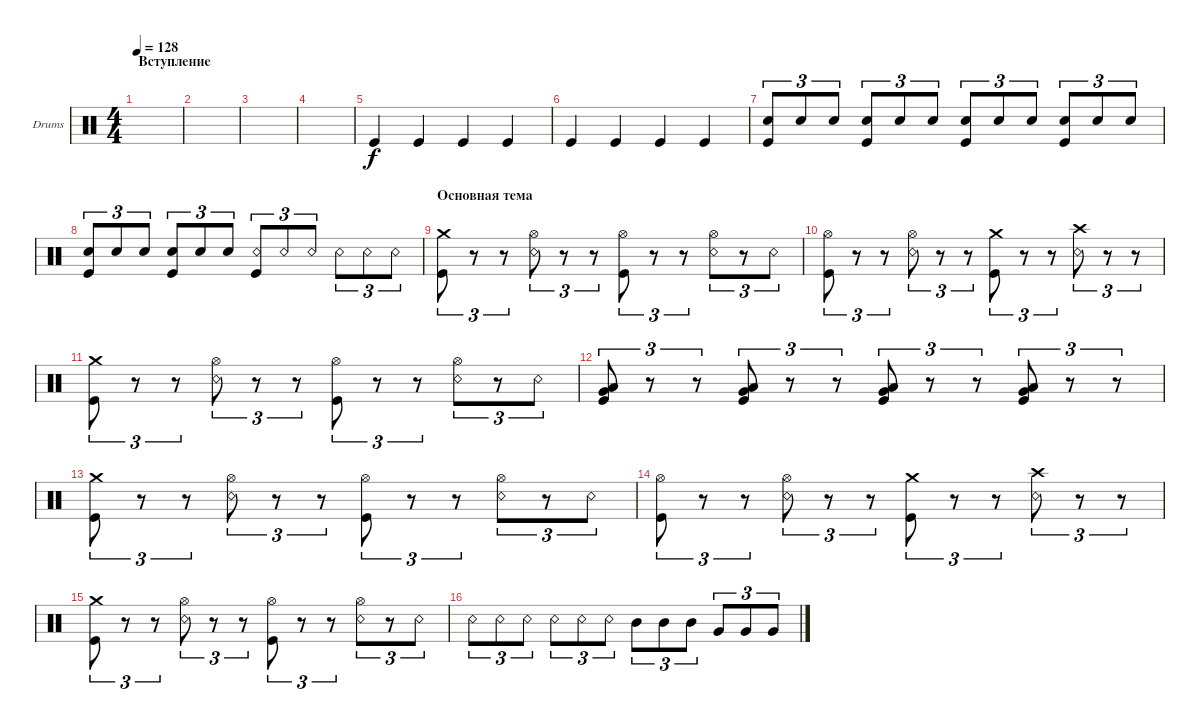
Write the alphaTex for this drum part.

\defaultSystemsLayout 4
\bracketExtendMode groupsimilarinstruments
\firstSystemTrackNameOrientation horizontal
\otherSystemsTrackNameOrientation horizontal
\track ("Drumkit" "Drums") {instrument percussion}
\staff {score}
\articulation defaults
\ts (4 4)
\section ("" "Вступление")
\tempo 128
\clef neutral
\ks c
|
|
|
|
"Kick (hit)".4 "Kick (hit)".4 "Kick (hit)".4 "Kick (hit)".4 |
"Kick (hit)".4 "Kick (hit)".4 "Kick (hit)".4 "Kick (hit)".4 |
("Snare (hit) 2" "Kick (hit)").8{tu (3 2)} "Snare (hit) 2".8{tu (3 2)} "Snare (hit) 2".8{tu (3 2)} ("Snare (hit) 2" "Kick (hit)").8{tu (3 2)} "Snare (hit) 2".8{tu (3 2)} "Snare (hit) 2".8{tu (3 2)} ("Snare (hit) 2" "Kick (hit)").8{tu (3 2)} "Snare (hit) 2".8{tu (3 2)} "Snare (hit) 2".8{tu (3 2)} ("Snare (hit) 2" "Kick (hit)").8{tu (3 2)} "Snare (hit) 2".8{tu (3 2)} "Snare (hit) 2".8{tu (3 2)} |
("Snare (hit) 2" "Kick (hit)").8{tu (3 2)} "Snare (hit) 2".8{tu (3 2)} "Snare (hit) 2".8{tu (3 2)} ("Snare (hit) 2" "Kick (hit)").8{tu (3 2)} "Snare (hit) 2".8{tu (3 2)} "Snare (hit) 2".8{tu (3 2)} ("Snare (rim shot)" "Kick (hit)").8{tu (3 2)} "Snare (rim shot)".8{tu (3 2)} "Snare (rim shot)".8{tu (3 2)} "Snare (rim shot)".8{tu (3 2)} "Snare (rim shot)".8{tu (3 2)} "Snare (rim shot)".8{tu (3 2)} |
\section ("" "Основная тема")
("Kick (hit)" "Crash medium (hit)").8{tu (3 2)} r.8{tu (3 2)} r.8{tu (3 2)} ("Snare (rim shot)" "Hi-Hat (open)").8{tu (3 2)} r.8{tu (3 2)} r.8{tu (3 2)} ("Kick (hit)" "Hi-Hat (open)").8{tu (3 2)} r.8{tu (3 2)} r.8{tu (3 2)} ("Snare (rim shot)" "Hi-Hat (open)").8{tu (3 2)} r.8{tu (3 2)} "Snare (rim shot)".8{tu (3 2)} |
("Kick (hit)" "Hi-Hat (open)").8{tu (3 2)} r.8{tu (3 2)} r.8{tu (3 2)} ("Snare (rim shot)" "Hi-Hat (open)").8{tu (3 2)} r.8{tu (3 2)} r.8{tu (3 2)} ("Kick (hit)" "Crash medium (hit)").8{tu (3 2)} r.8{tu (3 2)} r.8{tu (3 2)} ("Snare (rim shot)" "Crash high (hit)").8{tu (3 2)} r.8{tu (3 2)} r.8{tu (3 2)} |
("Kick (hit)" "Crash medium (hit)").8{tu (3 2)} r.8{tu (3 2)} r.8{tu (3 2)} ("Snare (rim shot)" "Hi-Hat (open)").8{tu (3 2)} r.8{tu (3 2)} r.8{tu (3 2)} ("Kick (hit)" "Hi-Hat (open)").8{tu (3 2)} r.8{tu (3 2)} r.8{tu (3 2)} ("Snare (rim shot)" "Hi-Hat (open)").8{tu (3 2)} r.8{tu (3 2)} "Snare (rim shot)".8{tu (3 2)} |
("Low Tom (hit)" "Very Low Tom (hit)" "Kick (hit)").8{tu (3 2)} r.8{tu (3 2)} r.8{tu (3 2)} ("Low Tom (hit)" "Very Low Tom (hit)" "Kick (hit)").8{tu (3 2)} r.8{tu (3 2)} r.8{tu (3 2)} ("Low Tom (hit)" "Very Low Tom (hit)" "Kick (hit)").8{tu (3 2)} r.8{tu (3 2)} r.8{tu (3 2)} ("Low Tom (hit)" "Very Low Tom (hit)" "Kick (hit)").8{tu (3 2)} r.8{tu (3 2)} r.8{tu (3 2)} |
("Kick (hit)" "Crash medium (hit)").8{tu (3 2)} r.8{tu (3 2)} r.8{tu (3 2)} ("Snare (rim shot)" "Hi-Hat (open)").8{tu (3 2)} r.8{tu (3 2)} r.8{tu (3 2)} ("Kick (hit)" "Hi-Hat (open)").8{tu (3 2)} r.8{tu (3 2)} r.8{tu (3 2)} ("Snare (rim shot)" "Hi-Hat (open)").8{tu (3 2)} r.8{tu (3 2)} "Snare (rim shot)".8{tu (3 2)} |
("Kick (hit)" "Hi-Hat (open)").8{tu (3 2)} r.8{tu (3 2)} r.8{tu (3 2)} ("Snare (rim shot)" "Hi-Hat (open)").8{tu (3 2)} r.8{tu (3 2)} r.8{tu (3 2)} ("Kick (hit)" "Crash medium (hit)").8{tu (3 2)} r.8{tu (3 2)} r.8{tu (3 2)} ("Snare (rim shot)" "Crash high (hit)").8{tu (3 2)} r.8{tu (3 2)} r.8{tu (3 2)} |
("Kick (hit)" "Crash medium (hit)").8{tu (3 2)} r.8{tu (3 2)} r.8{tu (3 2)} ("Snare (rim shot)" "Hi-Hat (open)").8{tu (3 2)} r.8{tu (3 2)} r.8{tu (3 2)} ("Kick (hit)" "Hi-Hat (open)").8{tu (3 2)} r.8{tu (3 2)} r.8{tu (3 2)} ("Snare (rim shot)" "Hi-Hat (open)").8{tu (3 2)} r.8{tu (3 2)} "Snare (rim shot)".8{tu (3 2)} |
"Snare (rim shot)".8{tu (3 2)} "Snare (rim shot)".8{tu (3 2)} "Snare (rim shot)".8{tu (3 2)} "Snare (rim shot)".8{tu (3 2)} "Snare (rim shot)".8{tu (3 2)} "Snare (rim shot)".8{tu (3 2)} "Mid Tom (hit)".8{tu (3 2)} "Mid Tom (hit)".8{tu (3 2)} "Mid Tom (hit)".8{tu (3 2)} "Very Low Tom (hit)".8{tu (3 2)} "Very Low Tom (hit)".8{tu (3 2)} "Very Low Tom (hit)".8{tu (3 2)}
